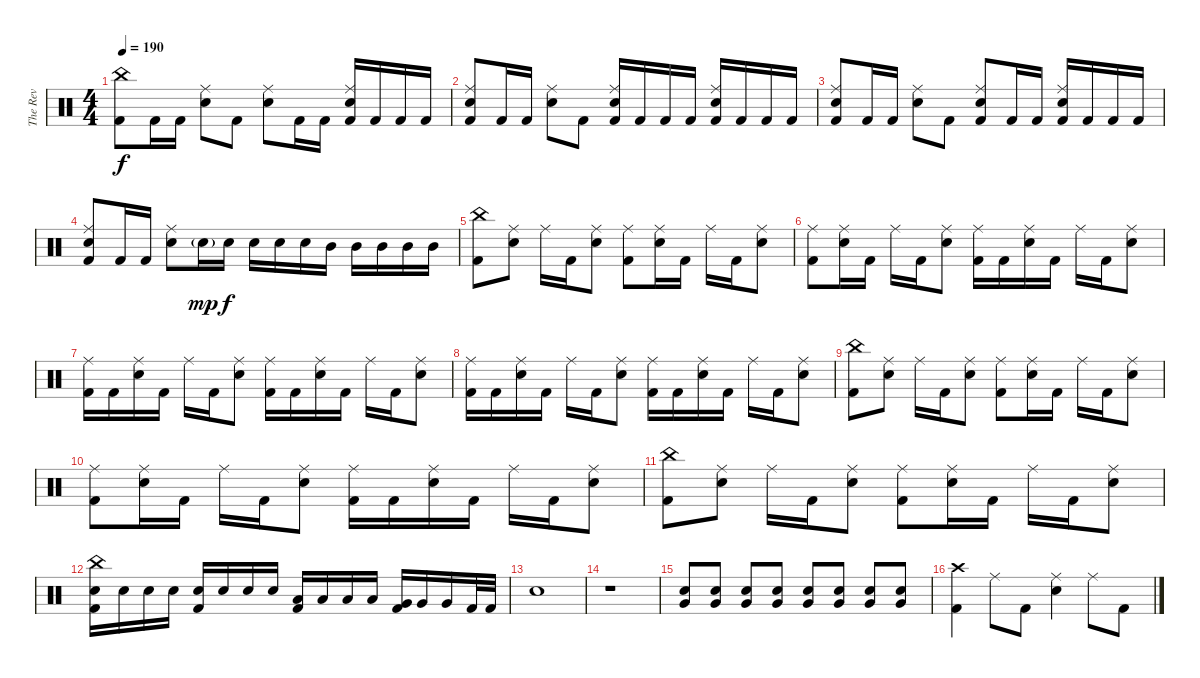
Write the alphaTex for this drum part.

\track ("The Rev" "The Rev") {instrument percussion}
\staff {score}
\articulation defaults
\ts (4 4)
\tempo 190
\clef neutral
\ks c
("China (hit)" "Kick (hit) 2").8{dy f} "Kick (hit) 2".16 "Kick (hit) 2".16 ("Ride (middle)" "Electric Snare (hit)").8 "Kick (hit) 2".8 ("Ride (middle)" "Electric Snare (hit)").8 "Kick (hit) 2".16 "Kick (hit) 2".16 ("Ride (middle)" "Electric Snare (hit)" "Kick (hit) 2").16 "Kick (hit) 2".16 "Kick (hit) 2".16 "Kick (hit) 2".16 |
("Ride (middle)" "Electric Snare (hit)" "Kick (hit) 2").8 "Kick (hit) 2".16 "Kick (hit) 2".16 ("Ride (middle)" "Electric Snare (hit)").8 "Kick (hit) 2".8 ("Ride (middle)" "Electric Snare (hit)" "Kick (hit) 2").16 "Kick (hit) 2".16 "Kick (hit) 2".16 "Kick (hit) 2".16 ("Ride (middle)" "Electric Snare (hit)" "Kick (hit) 2").16 "Kick (hit) 2".16 "Kick (hit) 2".16 "Kick (hit) 2".16 |
("Ride (middle)" "Electric Snare (hit)" "Kick (hit) 2").8 "Kick (hit) 2".16 "Kick (hit) 2".16 ("Ride (middle)" "Electric Snare (hit)").8 "Kick (hit) 2".8 ("Ride (middle)" "Electric Snare (hit)" "Kick (hit) 2").8 "Kick (hit) 2".16 "Kick (hit) 2".16 ("Ride (middle)" "Electric Snare (hit)" "Kick (hit) 2").16 "Kick (hit) 2".16 "Kick (hit) 2".16 "Kick (hit) 2".16 |
("Ride (middle)" "Electric Snare (hit)" "Kick (hit) 2").8 "Kick (hit) 2".16 "Kick (hit) 2".16 ("Ride (middle)" "Electric Snare (hit)").8 "Electric Snare (hit)"{g}.16{dy mp} "Electric Snare (hit)".16{dy f} "Electric Snare (hit)".16 "Electric Snare (hit)".16 "Electric Snare (hit)".16 "Mid Tom (hit)".16 "Mid Tom (hit)".16 "Mid Tom (hit)".16 "Mid Tom (hit)".16 "Mid Tom (hit)".16 |
("China (hit)" "Kick (hit) 2").8 ("Ride (middle)" "Electric Snare (hit)").8 "Ride (middle)".16 "Kick (hit) 2".16 ("Ride (middle)" "Electric Snare (hit)").8 ("Ride (middle)" "Kick (hit) 2").8 ("Ride (middle)" "Electric Snare (hit)").16 "Kick (hit) 2".16 "Ride (middle)".16 "Kick (hit) 2".16 ("Ride (middle)" "Electric Snare (hit)").8 |
("Ride (middle)" "Kick (hit) 2").8 ("Ride (middle)" "Electric Snare (hit)").16 "Kick (hit) 2".16 "Ride (middle)".16 "Kick (hit) 2".16 ("Ride (middle)" "Electric Snare (hit)").8 ("Ride (middle)" "Kick (hit) 2").16 "Kick (hit) 2".16 ("Ride (middle)" "Electric Snare (hit)").16 "Kick (hit) 2".16 "Ride (middle)".16 "Kick (hit) 2".16 ("Ride (middle)" "Electric Snare (hit)").8 |
("Ride (middle)" "Kick (hit) 2").16 "Kick (hit) 2".16 ("Ride (middle)" "Electric Snare (hit)").16 "Kick (hit) 2".16 "Ride (middle)".16 "Kick (hit) 2".16 ("Ride (middle)" "Electric Snare (hit)").8 ("Ride (middle)" "Kick (hit) 2").16 "Kick (hit) 2".16 ("Ride (middle)" "Electric Snare (hit)").16 "Kick (hit) 2".16 "Ride (middle)".16 "Kick (hit) 2".16 ("Ride (middle)" "Electric Snare (hit)").8 |
("Ride (middle)" "Kick (hit) 2").16 "Kick (hit) 2".16 ("Ride (middle)" "Electric Snare (hit)").16 "Kick (hit) 2".16 "Ride (middle)".16 "Kick (hit) 2".16 ("Ride (middle)" "Electric Snare (hit)").8 ("Ride (middle)" "Kick (hit) 2").16 "Kick (hit) 2".16 ("Ride (middle)" "Electric Snare (hit)").16 "Kick (hit) 2".16 "Ride (middle)".16 "Kick (hit) 2".16 ("Ride (middle)" "Electric Snare (hit)").8 |
("China (hit)" "Kick (hit) 2").8 ("Ride (middle)" "Electric Snare (hit)").8 "Ride (middle)".16 "Kick (hit) 2".16 ("Ride (middle)" "Electric Snare (hit)").8 ("Ride (middle)" "Kick (hit) 2").8 ("Ride (middle)" "Electric Snare (hit)").16 "Kick (hit) 2".16 "Ride (middle)".16 "Kick (hit) 2".16 ("Ride (middle)" "Electric Snare (hit)").8 |
("Ride (middle)" "Kick (hit) 2").8 ("Ride (middle)" "Electric Snare (hit)").16 "Kick (hit) 2".16 "Ride (middle)".16 "Kick (hit) 2".16 ("Ride (middle)" "Electric Snare (hit)").8 ("Ride (middle)" "Kick (hit) 2").16 "Kick (hit) 2".16 ("Ride (middle)" "Electric Snare (hit)").16 "Kick (hit) 2".16 "Ride (middle)".16 "Kick (hit) 2".16 ("Ride (middle)" "Electric Snare (hit)").8 |
("China (hit)" "Kick (hit) 2").8 ("Ride (middle)" "Electric Snare (hit)").8 "Ride (middle)".16 "Kick (hit) 2".16 ("Ride (middle)" "Electric Snare (hit)").8 ("Ride (middle)" "Kick (hit) 2").8 ("Ride (middle)" "Electric Snare (hit)").16 "Kick (hit) 2".16 "Ride (middle)".16 "Kick (hit) 2".16 ("Ride (middle)" "Electric Snare (hit)").8 |
("China (hit)" "Electric Snare (hit)" "Kick (hit) 2").16 "Electric Snare (hit)".16 "Electric Snare (hit)".16 "Electric Snare (hit)".16 ("Electric Snare (hit)" "Kick (hit) 2").16 "Electric Snare (hit)".16 "Electric Snare (hit)".16 "Electric Snare (hit)".16 ("Low Tom (hit)" "Kick (hit) 2").16 "Low Tom (hit)".16 "Low Tom (hit)".16 "Low Tom (hit)".16 ("Very Low Tom (hit)" "Kick (hit) 2").16 "Very Low Tom (hit)".16 "Very Low Tom (hit)".16 "Kick (hit) 2".32 "Kick (hit) 2".32 |
"Electric Snare (hit)".1 |
r.1 |
("Electric Snare (hit)" "Very Low Tom (hit)").8 ("Electric Snare (hit)" "Very Low Tom (hit)").8 ("Electric Snare (hit)" "Very Low Tom (hit)").8 ("Electric Snare (hit)" "Very Low Tom (hit)").8 ("Electric Snare (hit)" "Very Low Tom (hit)").8 ("Electric Snare (hit)" "Very Low Tom (hit)").8 ("Electric Snare (hit)" "Very Low Tom (hit)").8 ("Electric Snare (hit)" "Very Low Tom (hit)").8 |
("Crash high (hit)" "Kick (hit) 2").4 "Ride (middle)".8 "Kick (hit) 2".8 ("Ride (middle)" "Electric Snare (hit)").4 "Ride (middle)".8 "Kick (hit) 2".8
